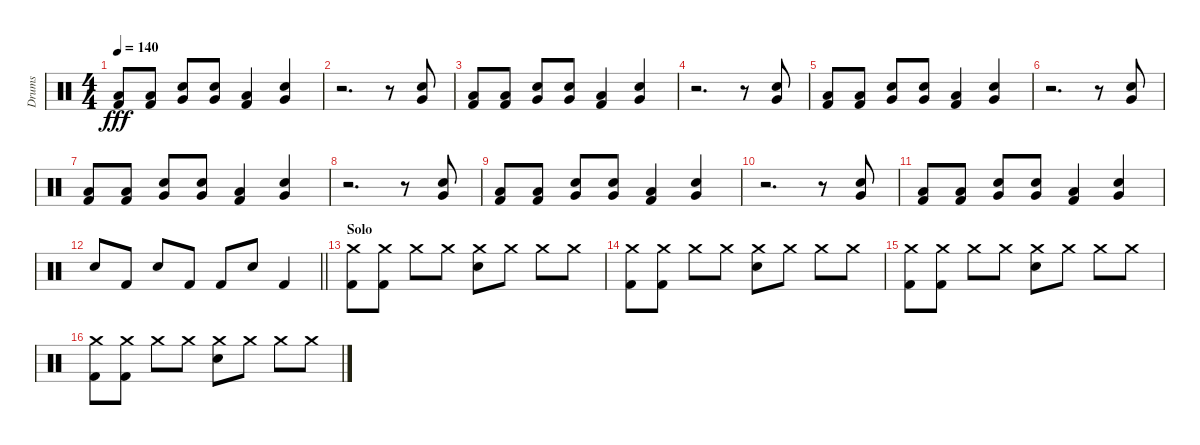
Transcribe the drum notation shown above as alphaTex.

\track ("Drums" "Drums") {instrument percussion}
\staff {score}
\articulation defaults
\ts (4 4)
\tempo 140
\clef neutral
\ks c
("Low Floor Tom (hit)" "Kick (hit) 2").8{dy fff} ("Low Floor Tom (hit)" "Kick (hit) 2").8 ("Very Low Tom (hit)" "Electric Snare (hit)").8 ("Very Low Tom (hit)" "Electric Snare (hit)").8 ("Low Floor Tom (hit)" "Kick (hit) 2").4 ("Very Low Tom (hit)" "Electric Snare (hit)").4 |
r.2{d} r.8 ("Very Low Tom (hit)" "Electric Snare (hit)").8 |
("Low Floor Tom (hit)" "Kick (hit) 2").8 ("Low Floor Tom (hit)" "Kick (hit) 2").8 ("Very Low Tom (hit)" "Electric Snare (hit)").8 ("Very Low Tom (hit)" "Electric Snare (hit)").8 ("Low Floor Tom (hit)" "Kick (hit) 2").4 ("Very Low Tom (hit)" "Electric Snare (hit)").4 |
r.2{d} r.8 ("Very Low Tom (hit)" "Electric Snare (hit)").8 |
("Low Floor Tom (hit)" "Kick (hit) 2").8 ("Low Floor Tom (hit)" "Kick (hit) 2").8 ("Very Low Tom (hit)" "Electric Snare (hit)").8 ("Very Low Tom (hit)" "Electric Snare (hit)").8 ("Low Floor Tom (hit)" "Kick (hit) 2").4 ("Very Low Tom (hit)" "Electric Snare (hit)").4 |
r.2{d} r.8 ("Very Low Tom (hit)" "Electric Snare (hit)").8 |
("Low Floor Tom (hit)" "Kick (hit) 2").8 ("Low Floor Tom (hit)" "Kick (hit) 2").8 ("Very Low Tom (hit)" "Electric Snare (hit)").8 ("Very Low Tom (hit)" "Electric Snare (hit)").8 ("Low Floor Tom (hit)" "Kick (hit) 2").4 ("Very Low Tom (hit)" "Electric Snare (hit)").4 |
r.2{d} r.8 ("Very Low Tom (hit)" "Electric Snare (hit)").8 |
("Low Floor Tom (hit)" "Kick (hit) 2").8 ("Low Floor Tom (hit)" "Kick (hit) 2").8 ("Very Low Tom (hit)" "Electric Snare (hit)").8 ("Very Low Tom (hit)" "Electric Snare (hit)").8 ("Low Floor Tom (hit)" "Kick (hit) 2").4 ("Very Low Tom (hit)" "Electric Snare (hit)").4 |
r.2{d} r.8 ("Very Low Tom (hit)" "Electric Snare (hit)").8 |
("Low Floor Tom (hit)" "Kick (hit) 2").8 ("Low Floor Tom (hit)" "Kick (hit) 2").8 ("Very Low Tom (hit)" "Electric Snare (hit)").8 ("Very Low Tom (hit)" "Electric Snare (hit)").8 ("Low Floor Tom (hit)" "Kick (hit) 2").4 ("Very Low Tom (hit)" "Electric Snare (hit)").4 |
\barLineRight lightlight "Electric Snare (hit)".8 "Kick (hit) 2".8 "Electric Snare (hit)".8 "Kick (hit) 2".8 "Kick (hit) 2".8 "Electric Snare (hit)".8 "Kick (hit) 2".4
|
\section ("" "Solo")
("Crash medium (hit)" "Kick (hit) 2").8 ("Crash medium (hit)" "Kick (hit) 2").8 "Crash medium (hit)".8 "Crash medium (hit)".8 ("Crash medium (hit)" "Electric Snare (hit)").8 "Crash medium (hit)".8 "Crash medium (hit)".8 "Crash medium (hit)".8 |
("Crash medium (hit)" "Kick (hit) 2").8 ("Crash medium (hit)" "Kick (hit) 2").8 "Crash medium (hit)".8 "Crash medium (hit)".8 ("Crash medium (hit)" "Electric Snare (hit)").8 "Crash medium (hit)".8 "Crash medium (hit)".8 "Crash medium (hit)".8 |
("Crash medium (hit)" "Kick (hit) 2").8 ("Crash medium (hit)" "Kick (hit) 2").8 "Crash medium (hit)".8 "Crash medium (hit)".8 ("Crash medium (hit)" "Electric Snare (hit)").8 "Crash medium (hit)".8 "Crash medium (hit)".8 "Crash medium (hit)".8 |
("Crash medium (hit)" "Kick (hit) 2").8 ("Crash medium (hit)" "Kick (hit) 2").8 "Crash medium (hit)".8 "Crash medium (hit)".8 ("Crash medium (hit)" "Electric Snare (hit)").8 "Crash medium (hit)".8 "Crash medium (hit)".8 "Crash medium (hit)".8
